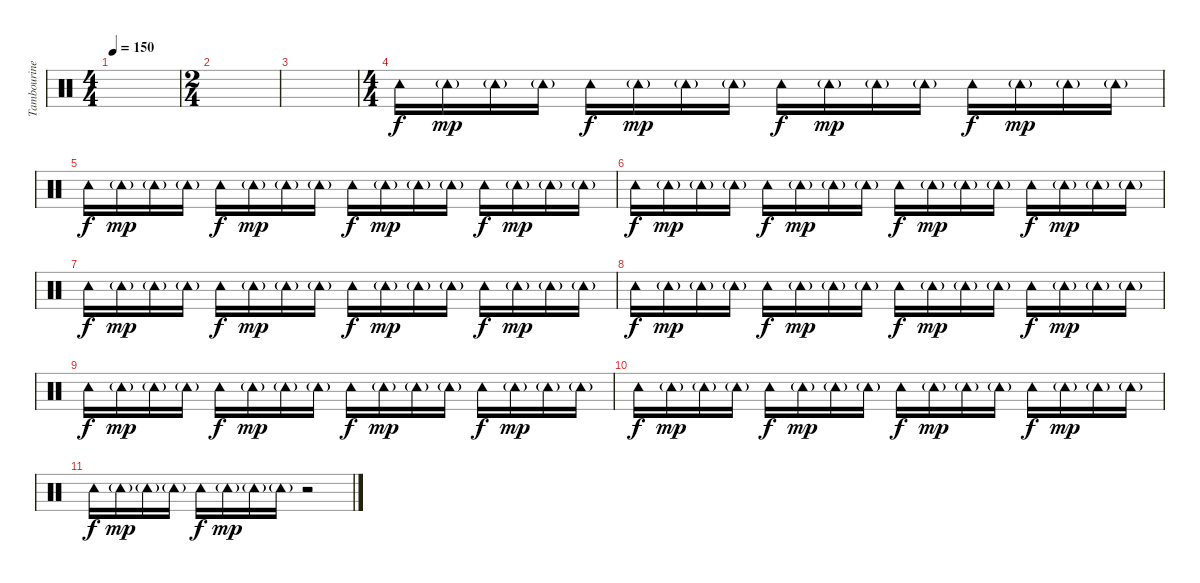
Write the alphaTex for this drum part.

\track ("Tambourine" "Tambourine") {instrument percussion}
\staff {score}
\articulation defaults
\ts (4 4)
\tempo 150
\clef neutral
\ks c
|
\ts (2 4)
|
|
\ts (4 4)
"Tambourine (hit)".16{dy f} "Tambourine (hit)"{g}.16{dy mp} "Tambourine (hit)"{g}.16 "Tambourine (hit)"{g}.16 "Tambourine (hit)".16{dy f} "Tambourine (hit)"{g}.16{dy mp} "Tambourine (hit)"{g}.16 "Tambourine (hit)"{g}.16 "Tambourine (hit)".16{dy f} "Tambourine (hit)"{g}.16{dy mp} "Tambourine (hit)"{g}.16 "Tambourine (hit)"{g}.16 "Tambourine (hit)".16{dy f} "Tambourine (hit)"{g}.16{dy mp} "Tambourine (hit)"{g}.16 "Tambourine (hit)"{g}.16 |
"Tambourine (hit)".16{dy f} "Tambourine (hit)"{g}.16{dy mp} "Tambourine (hit)"{g}.16 "Tambourine (hit)"{g}.16 "Tambourine (hit)".16{dy f} "Tambourine (hit)"{g}.16{dy mp} "Tambourine (hit)"{g}.16 "Tambourine (hit)"{g}.16 "Tambourine (hit)".16{dy f} "Tambourine (hit)"{g}.16{dy mp} "Tambourine (hit)"{g}.16 "Tambourine (hit)"{g}.16 "Tambourine (hit)".16{dy f} "Tambourine (hit)"{g}.16{dy mp} "Tambourine (hit)"{g}.16 "Tambourine (hit)"{g}.16 |
"Tambourine (hit)".16{dy f} "Tambourine (hit)"{g}.16{dy mp} "Tambourine (hit)"{g}.16 "Tambourine (hit)"{g}.16 "Tambourine (hit)".16{dy f} "Tambourine (hit)"{g}.16{dy mp} "Tambourine (hit)"{g}.16 "Tambourine (hit)"{g}.16 "Tambourine (hit)".16{dy f} "Tambourine (hit)"{g}.16{dy mp} "Tambourine (hit)"{g}.16 "Tambourine (hit)"{g}.16 "Tambourine (hit)".16{dy f} "Tambourine (hit)"{g}.16{dy mp} "Tambourine (hit)"{g}.16 "Tambourine (hit)"{g}.16 |
"Tambourine (hit)".16{dy f} "Tambourine (hit)"{g}.16{dy mp} "Tambourine (hit)"{g}.16 "Tambourine (hit)"{g}.16 "Tambourine (hit)".16{dy f} "Tambourine (hit)"{g}.16{dy mp} "Tambourine (hit)"{g}.16 "Tambourine (hit)"{g}.16 "Tambourine (hit)".16{dy f} "Tambourine (hit)"{g}.16{dy mp} "Tambourine (hit)"{g}.16 "Tambourine (hit)"{g}.16 "Tambourine (hit)".16{dy f} "Tambourine (hit)"{g}.16{dy mp} "Tambourine (hit)"{g}.16 "Tambourine (hit)"{g}.16 |
"Tambourine (hit)".16{dy f} "Tambourine (hit)"{g}.16{dy mp} "Tambourine (hit)"{g}.16 "Tambourine (hit)"{g}.16 "Tambourine (hit)".16{dy f} "Tambourine (hit)"{g}.16{dy mp} "Tambourine (hit)"{g}.16 "Tambourine (hit)"{g}.16 "Tambourine (hit)".16{dy f} "Tambourine (hit)"{g}.16{dy mp} "Tambourine (hit)"{g}.16 "Tambourine (hit)"{g}.16 "Tambourine (hit)".16{dy f} "Tambourine (hit)"{g}.16{dy mp} "Tambourine (hit)"{g}.16 "Tambourine (hit)"{g}.16 |
"Tambourine (hit)".16{dy f} "Tambourine (hit)"{g}.16{dy mp} "Tambourine (hit)"{g}.16 "Tambourine (hit)"{g}.16 "Tambourine (hit)".16{dy f} "Tambourine (hit)"{g}.16{dy mp} "Tambourine (hit)"{g}.16 "Tambourine (hit)"{g}.16 "Tambourine (hit)".16{dy f} "Tambourine (hit)"{g}.16{dy mp} "Tambourine (hit)"{g}.16 "Tambourine (hit)"{g}.16 "Tambourine (hit)".16{dy f} "Tambourine (hit)"{g}.16{dy mp} "Tambourine (hit)"{g}.16 "Tambourine (hit)"{g}.16 |
"Tambourine (hit)".16{dy f} "Tambourine (hit)"{g}.16{dy mp} "Tambourine (hit)"{g}.16 "Tambourine (hit)"{g}.16 "Tambourine (hit)".16{dy f} "Tambourine (hit)"{g}.16{dy mp} "Tambourine (hit)"{g}.16 "Tambourine (hit)"{g}.16 "Tambourine (hit)".16{dy f} "Tambourine (hit)"{g}.16{dy mp} "Tambourine (hit)"{g}.16 "Tambourine (hit)"{g}.16 "Tambourine (hit)".16{dy f} "Tambourine (hit)"{g}.16{dy mp} "Tambourine (hit)"{g}.16 "Tambourine (hit)"{g}.16 |
"Tambourine (hit)".16{dy f} "Tambourine (hit)"{g}.16{dy mp} "Tambourine (hit)"{g}.16 "Tambourine (hit)"{g}.16 "Tambourine (hit)".16{dy f} "Tambourine (hit)"{g}.16{dy mp} "Tambourine (hit)"{g}.16 "Tambourine (hit)"{g}.16 r.2
